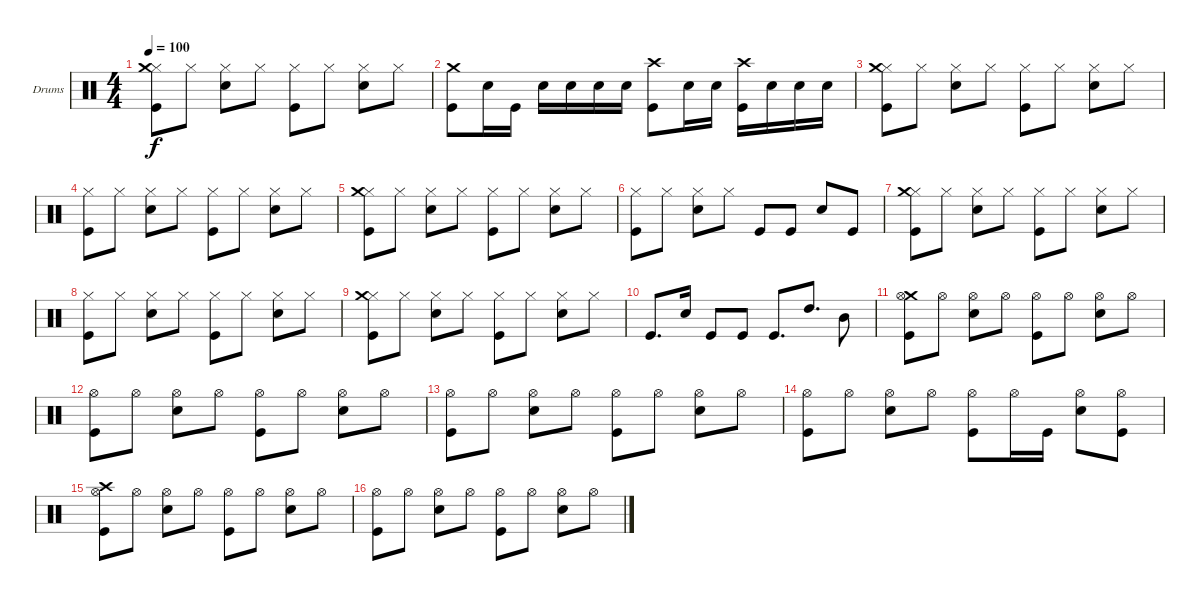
\defaultSystemsLayout 4
\bracketExtendMode groupsimilarinstruments
\firstSystemTrackNameOrientation horizontal
\otherSystemsTrackNameOrientation horizontal
\track ("Nick Menza " "Drums") {instrument percussion}
\staff {score}
\articulation defaults
\ts (4 4)
\tempo 100
\clef neutral
\ks c
("Hi-Hat (closed)" "Kick (hit)" "Crash medium (hit)").8{dy f} "Hi-Hat (closed)".8 ("Hi-Hat (closed)" "Snare (hit) 2").8 "Hi-Hat (closed)".8 ("Hi-Hat (closed)" "Kick (hit)").8 "Hi-Hat (closed)".8 ("Hi-Hat (closed)" "Snare (hit) 2").8 "Hi-Hat (closed)".8 |
("Kick (hit)" "Crash medium (hit)").8 "Snare (hit) 2".16 "Kick (hit)".16 "Snare (hit) 2".16 "Snare (hit) 2".16 "Snare (hit) 2".16 "Snare (hit) 2".16 ("Kick (hit)" "Crash high (hit)").8 "Snare (hit) 2".16 "Snare (hit) 2".16 ("Kick (hit)" "Crash high (hit)").16 "Snare (hit) 2".16 "Snare (hit) 2".16 "Snare (hit) 2".16 |
("Hi-Hat (closed)" "Kick (hit)" "Crash medium (hit)").8 "Hi-Hat (closed)".8 ("Hi-Hat (closed)" "Snare (hit) 2").8 "Hi-Hat (closed)".8 ("Hi-Hat (closed)" "Kick (hit)").8 "Hi-Hat (closed)".8 ("Hi-Hat (closed)" "Snare (hit) 2").8 "Hi-Hat (closed)".8 |
("Hi-Hat (closed)" "Kick (hit)").8 "Hi-Hat (closed)".8 ("Hi-Hat (closed)" "Snare (hit) 2").8 "Hi-Hat (closed)".8 ("Hi-Hat (closed)" "Kick (hit)").8 "Hi-Hat (closed)".8 ("Hi-Hat (closed)" "Snare (hit) 2").8 "Hi-Hat (closed)".8 |
("Hi-Hat (closed)" "Kick (hit)" "Crash medium (hit)").8 "Hi-Hat (closed)".8 ("Hi-Hat (closed)" "Snare (hit) 2").8 "Hi-Hat (closed)".8 ("Hi-Hat (closed)" "Kick (hit)").8 "Hi-Hat (closed)".8 ("Hi-Hat (closed)" "Snare (hit) 2").8 "Hi-Hat (closed)".8 |
("Hi-Hat (closed)" "Kick (hit)").8 "Hi-Hat (closed)".8 ("Hi-Hat (closed)" "Snare (hit) 2").8 "Hi-Hat (closed)".8 "Kick (hit)".8 "Kick (hit)".8 "Snare (hit) 2".8 "Kick (hit)".8 |
("Hi-Hat (closed)" "Kick (hit)" "Crash medium (hit)").8 "Hi-Hat (closed)".8 ("Hi-Hat (closed)" "Snare (hit) 2").8 "Hi-Hat (closed)".8 ("Hi-Hat (closed)" "Kick (hit)").8 "Hi-Hat (closed)".8 ("Hi-Hat (closed)" "Snare (hit) 2").8 "Hi-Hat (closed)".8 |
("Hi-Hat (closed)" "Kick (hit)").8 "Hi-Hat (closed)".8 ("Hi-Hat (closed)" "Snare (hit) 2").8 "Hi-Hat (closed)".8 ("Hi-Hat (closed)" "Kick (hit)").8 "Hi-Hat (closed)".8 ("Hi-Hat (closed)" "Snare (hit) 2").8 "Hi-Hat (closed)".8 |
("Hi-Hat (closed)" "Kick (hit)" "Crash medium (hit)").8 "Hi-Hat (closed)".8 ("Hi-Hat (closed)" "Snare (hit) 2").8 "Hi-Hat (closed)".8 ("Hi-Hat (closed)" "Kick (hit)").8 "Hi-Hat (closed)".8 ("Hi-Hat (closed)" "Snare (hit) 2").8 "Hi-Hat (closed)".8 |
"Kick (hit)".8{d} "Snare (hit) 2".16 "Kick (hit)".8 "Kick (hit)".8 "Kick (hit)".8{d} "High Tom (hit)".8{d} "Mid Tom (hit)".8 |
("Crash medium (hit)" "Hi-Hat (open)" "Kick (hit)").8 "Hi-Hat (open)".8 ("Hi-Hat (open)" "Snare (hit) 2").8 "Hi-Hat (open)".8 ("Hi-Hat (open)" "Kick (hit)").8 "Hi-Hat (open)".8 ("Hi-Hat (open)" "Snare (hit) 2").8 "Hi-Hat (open)".8 |
("Hi-Hat (open)" "Kick (hit)").8 "Hi-Hat (open)".8 ("Hi-Hat (open)" "Snare (hit) 2").8 "Hi-Hat (open)".8 ("Hi-Hat (open)" "Kick (hit)").8 "Hi-Hat (open)".8 ("Hi-Hat (open)" "Snare (hit) 2").8 "Hi-Hat (open)".8 |
("Hi-Hat (open)" "Kick (hit)").8 "Hi-Hat (open)".8 ("Hi-Hat (open)" "Snare (hit) 2").8 "Hi-Hat (open)".8 ("Hi-Hat (open)" "Kick (hit)").8 "Hi-Hat (open)".8 ("Hi-Hat (open)" "Snare (hit) 2").8 "Hi-Hat (open)".8 |
("Hi-Hat (open)" "Kick (hit)").8 "Hi-Hat (open)".8 ("Hi-Hat (open)" "Snare (hit) 2").8 "Hi-Hat (open)".8 ("Hi-Hat (open)" "Kick (hit)").8 "Hi-Hat (open)".16 "Kick (hit)".16 ("Hi-Hat (open)" "Snare (hit) 2").8 ("Hi-Hat (open)" "Kick (hit)").8 |
("Crash high (hit)" "Hi-Hat (open)" "Kick (hit)").8 "Hi-Hat (open)".8 ("Hi-Hat (open)" "Snare (hit) 2").8 "Hi-Hat (open)".8 ("Hi-Hat (open)" "Kick (hit)").8 "Hi-Hat (open)".8 ("Hi-Hat (open)" "Snare (hit) 2").8 "Hi-Hat (open)".8 |
("Hi-Hat (open)" "Kick (hit)").8 "Hi-Hat (open)".8 ("Hi-Hat (open)" "Snare (hit) 2").8 "Hi-Hat (open)".8 ("Hi-Hat (open)" "Kick (hit)").8 "Hi-Hat (open)".8 ("Hi-Hat (open)" "Snare (hit) 2").8 "Hi-Hat (open)".8
